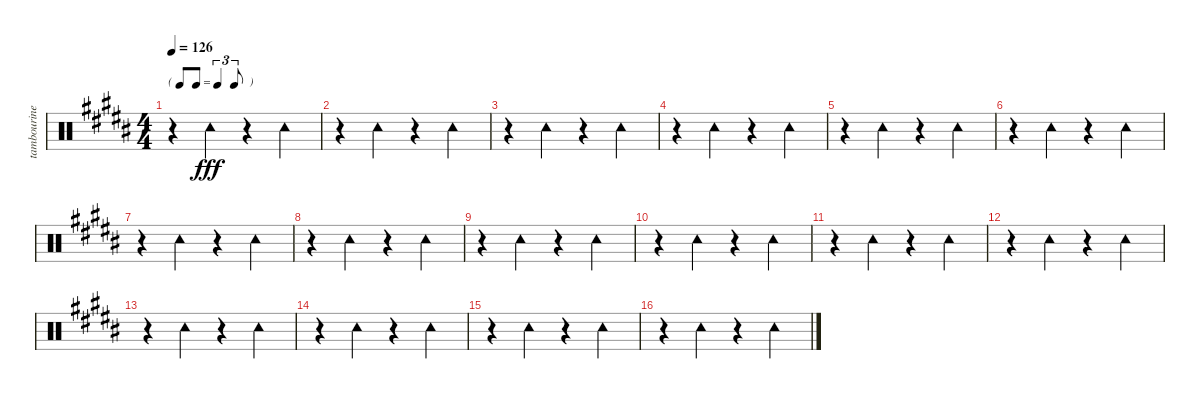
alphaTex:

\track ("tambourine" "tambourine") {instrument percussion}
\staff {score}
\articulation defaults
\ts (4 4)
\tf triplet8th
\tempo 126
\clef neutral
\ks b
r.4{dy fff} "Tambourine (hit)".4 r.4 "Tambourine (hit)".4 |
r.4 "Tambourine (hit)".4 r.4 "Tambourine (hit)".4 |
r.4 "Tambourine (hit)".4 r.4 "Tambourine (hit)".4 |
r.4 "Tambourine (hit)".4 r.4 "Tambourine (hit)".4 |
r.4 "Tambourine (hit)".4 r.4 "Tambourine (hit)".4 |
r.4 "Tambourine (hit)".4 r.4 "Tambourine (hit)".4 |
r.4 "Tambourine (hit)".4 r.4 "Tambourine (hit)".4 |
r.4 "Tambourine (hit)".4 r.4 "Tambourine (hit)".4 |
r.4 "Tambourine (hit)".4 r.4 "Tambourine (hit)".4 |
r.4 "Tambourine (hit)".4 r.4 "Tambourine (hit)".4 |
r.4 "Tambourine (hit)".4 r.4 "Tambourine (hit)".4 |
r.4 "Tambourine (hit)".4 r.4 "Tambourine (hit)".4 |
r.4 "Tambourine (hit)".4 r.4 "Tambourine (hit)".4 |
r.4 "Tambourine (hit)".4 r.4 "Tambourine (hit)".4 |
r.4 "Tambourine (hit)".4 r.4 "Tambourine (hit)".4 |
r.4 "Tambourine (hit)".4 r.4 "Tambourine (hit)".4
